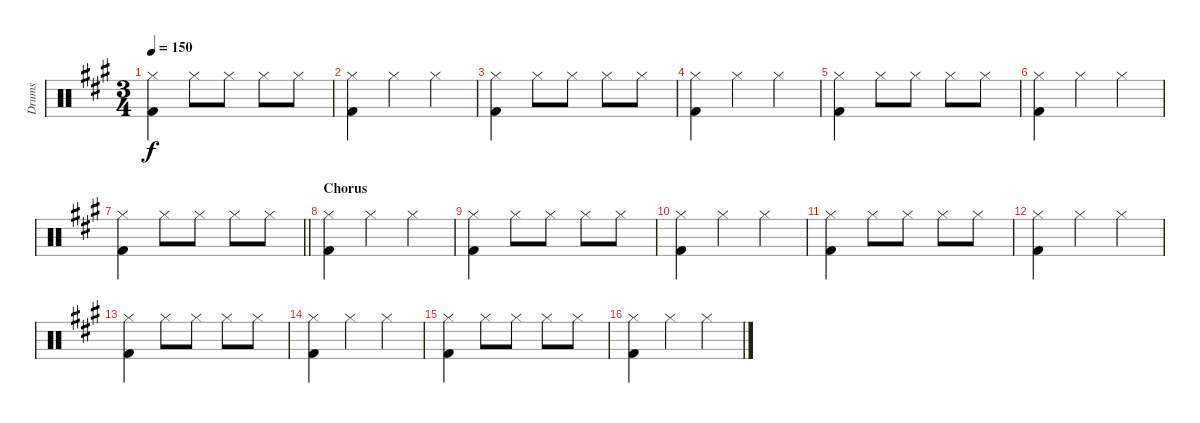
\track ("Drums" "Drums") {instrument percussion}
\staff {score}
\articulation defaults
\ts (3 4)
\tempo 150
\clef neutral
\ks f#minor
("Kick (hit) 2" "Hi-Hat (closed)").4{dy f} "Hi-Hat (closed)".8 "Hi-Hat (closed)".8 "Hi-Hat (closed)".8 "Hi-Hat (closed)".8 |
("Kick (hit) 2" "Hi-Hat (closed)").4 "Hi-Hat (closed)".4 "Hi-Hat (closed)".4 |
("Kick (hit) 2" "Hi-Hat (closed)").4 "Hi-Hat (closed)".8 "Hi-Hat (closed)".8 "Hi-Hat (closed)".8 "Hi-Hat (closed)".8 |
("Kick (hit) 2" "Hi-Hat (closed)").4 "Hi-Hat (closed)".4 "Hi-Hat (closed)".4 |
("Kick (hit) 2" "Hi-Hat (closed)").4 "Hi-Hat (closed)".8 "Hi-Hat (closed)".8 "Hi-Hat (closed)".8 "Hi-Hat (closed)".8 |
("Kick (hit) 2" "Hi-Hat (closed)").4 "Hi-Hat (closed)".4 "Hi-Hat (closed)".4 |
\barLineRight lightlight
("Kick (hit) 2" "Hi-Hat (closed)").4 "Hi-Hat (closed)".8 "Hi-Hat (closed)".8 "Hi-Hat (closed)".8 "Hi-Hat (closed)".8 |
\section ("" "Chorus")
("Kick (hit) 2" "Hi-Hat (closed)").4 "Hi-Hat (closed)".4 "Hi-Hat (closed)".4 |
("Kick (hit) 2" "Hi-Hat (closed)").4 "Hi-Hat (closed)".8 "Hi-Hat (closed)".8 "Hi-Hat (closed)".8 "Hi-Hat (closed)".8 |
("Kick (hit) 2" "Hi-Hat (closed)").4 "Hi-Hat (closed)".4 "Hi-Hat (closed)".4 |
("Kick (hit) 2" "Hi-Hat (closed)").4 "Hi-Hat (closed)".8 "Hi-Hat (closed)".8 "Hi-Hat (closed)".8 "Hi-Hat (closed)".8 |
("Kick (hit) 2" "Hi-Hat (closed)").4 "Hi-Hat (closed)".4 "Hi-Hat (closed)".4 |
("Kick (hit) 2" "Hi-Hat (closed)").4 "Hi-Hat (closed)".8 "Hi-Hat (closed)".8 "Hi-Hat (closed)".8 "Hi-Hat (closed)".8 |
("Kick (hit) 2" "Hi-Hat (closed)").4 "Hi-Hat (closed)".4 "Hi-Hat (closed)".4 |
("Kick (hit) 2" "Hi-Hat (closed)").4 "Hi-Hat (closed)".8 "Hi-Hat (closed)".8 "Hi-Hat (closed)".8 "Hi-Hat (closed)".8 |
("Kick (hit) 2" "Hi-Hat (closed)").4 "Hi-Hat (closed)".4 "Hi-Hat (closed)".4
